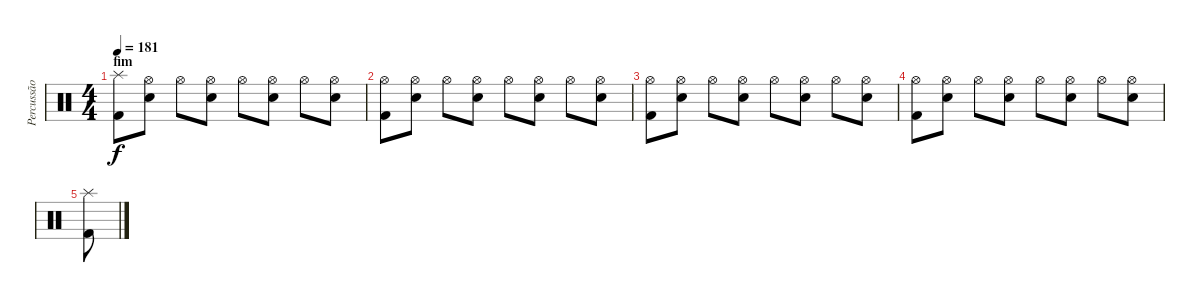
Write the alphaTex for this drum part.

\track ("Percussão" "Percussão") {instrument percussion}
\staff {score}
\articulation defaults
\ts (4 4)
\section ("" "fim")
\tempo 181
\clef neutral
\ks c
("Splash (hit)" "Kick (hit) 2").8{dy f} ("Hi-Hat (open)" "Snare (hit) 2").8 "Hi-Hat (open)".8 ("Hi-Hat (open)" "Snare (hit) 2").8 "Hi-Hat (open)".8 ("Hi-Hat (open)" "Snare (hit) 2").8 "Hi-Hat (open)".8 ("Hi-Hat (open)" "Snare (hit) 2").8 |
("Hi-Hat (open)" "Kick (hit) 2").8 ("Hi-Hat (open)" "Snare (hit) 2").8 "Hi-Hat (open)".8 ("Hi-Hat (open)" "Snare (hit) 2").8 "Hi-Hat (open)".8 ("Hi-Hat (open)" "Snare (hit) 2").8 "Hi-Hat (open)".8 ("Hi-Hat (open)" "Snare (hit) 2").8 |
("Hi-Hat (open)" "Kick (hit) 2").8 ("Hi-Hat (open)" "Snare (hit) 2").8 "Hi-Hat (open)".8 ("Hi-Hat (open)" "Snare (hit) 2").8 "Hi-Hat (open)".8 ("Hi-Hat (open)" "Snare (hit) 2").8 "Hi-Hat (open)".8 ("Hi-Hat (open)" "Snare (hit) 2").8 |
("Hi-Hat (open)" "Kick (hit) 2").8 ("Hi-Hat (open)" "Snare (hit) 2").8 "Hi-Hat (open)".8 ("Hi-Hat (open)" "Snare (hit) 2").8 "Hi-Hat (open)".8 ("Hi-Hat (open)" "Snare (hit) 2").8 "Hi-Hat (open)".8 ("Hi-Hat (open)" "Snare (hit) 2").8 |
("Splash (hit)" "Kick (hit) 2").8
